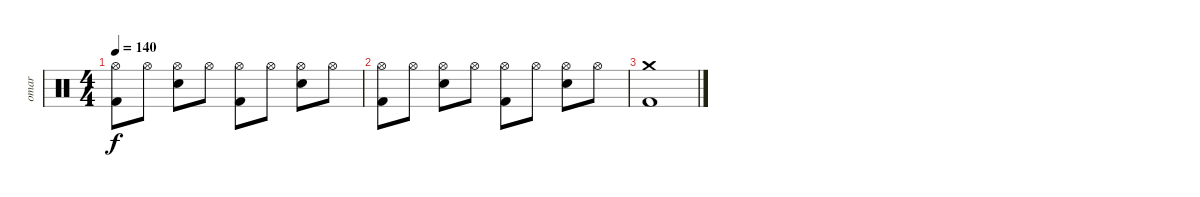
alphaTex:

\track ("omar" "omar") {instrument percussion}
\staff {score}
\articulation defaults
\ts (4 4)
\tempo 140
\clef neutral
\ks c
("Hi-Hat (open)" "Kick (hit) 2").8{dy f} "Hi-Hat (open)".8 ("Hi-Hat (open)" "Electric Snare (hit)").8 "Hi-Hat (open)".8 ("Hi-Hat (open)" "Kick (hit) 2").8 "Hi-Hat (open)".8 ("Hi-Hat (open)" "Electric Snare (hit)").8 "Hi-Hat (open)".8 |
("Hi-Hat (open)" "Kick (hit) 2").8 "Hi-Hat (open)".8 ("Hi-Hat (open)" "Electric Snare (hit)").8 "Hi-Hat (open)".8 ("Hi-Hat (open)" "Kick (hit) 2").8 "Hi-Hat (open)".8 ("Hi-Hat (open)" "Electric Snare (hit)").8 "Hi-Hat (open)".8 |
("Crash medium (hit)" "Kick (hit) 2").1
